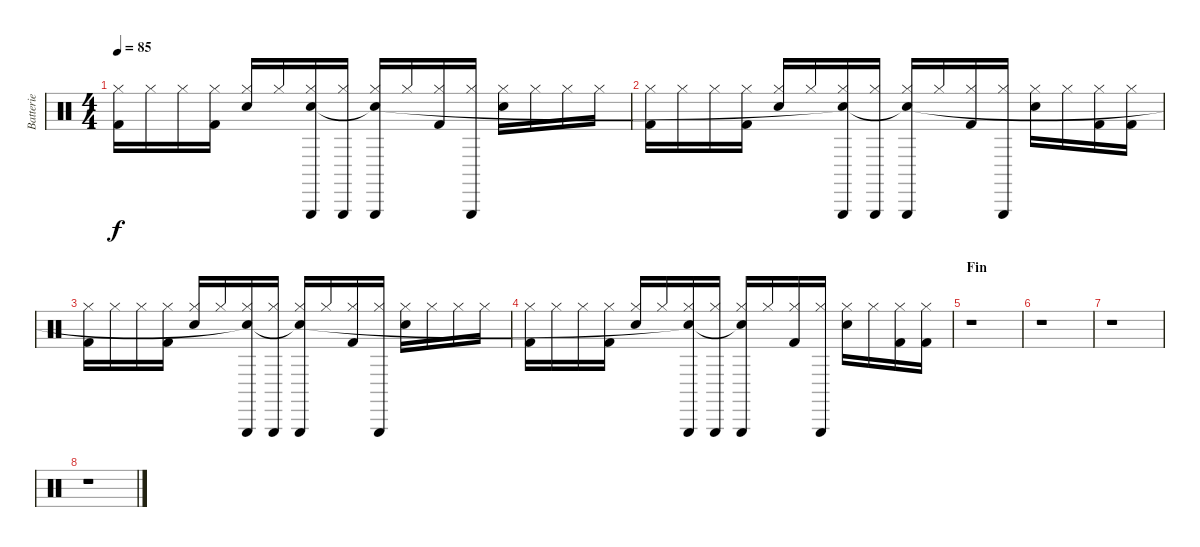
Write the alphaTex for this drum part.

\track ("Batterie" "Batterie") {instrument percussion}
\staff {score}
\articulation defaults
\ts (4 4)
\tempo 85
\clef neutral
\ks c
("Hi-Hat (closed)" "Kick (hit) 2").16{dy f} "Hi-Hat (closed)".16 "Hi-Hat (closed)".16 ("Hi-Hat (closed)" "Kick (hit) 2").16 ("Hi-Hat (closed)" "Hand Clap (hit)").16 "Hi-Hat (closed)".16 ("Hi-Hat (closed)" "Triangle (hit)" "Snare (hit)"{t}).16 ("Hi-Hat (closed)" "Triangle (hit)").16 ("Hi-Hat (closed)" "Triangle (hit)" "Snare (hit)"{t}).16 "Hi-Hat (closed)".16 ("Hi-Hat (closed)" "Kick (hit) 2").16 ("Hi-Hat (closed)" "Triangle (hit)").16 ("Hi-Hat (closed)" "Hand Clap (hit)").16 "Hi-Hat (closed)".16 "Hi-Hat (closed)".16 "Hi-Hat (closed)".16 |
("Hi-Hat (closed)" "Kick (hit) 2").16 "Hi-Hat (closed)".16 "Hi-Hat (closed)".16 ("Hi-Hat (closed)" "Kick (hit) 2").16 ("Hi-Hat (closed)" "Hand Clap (hit)").16 "Hi-Hat (closed)".16 ("Hi-Hat (closed)" "Triangle (hit)" "Snare (hit)"{t}).16 ("Hi-Hat (closed)" "Triangle (hit)").16 ("Hi-Hat (closed)" "Triangle (hit)" "Snare (hit)"{t}).16 "Hi-Hat (closed)".16 ("Hi-Hat (closed)" "Kick (hit) 2").16 ("Hi-Hat (closed)" "Triangle (hit)").16 ("Hi-Hat (closed)" "Hand Clap (hit)").16 "Hi-Hat (closed)".16 ("Hi-Hat (closed)" "Kick (hit) 2").16 ("Hi-Hat (closed)" "Kick (hit) 2").16 |
("Hi-Hat (closed)" "Kick (hit) 2").16 "Hi-Hat (closed)".16 "Hi-Hat (closed)".16 ("Hi-Hat (closed)" "Kick (hit) 2").16 ("Hi-Hat (closed)" "Hand Clap (hit)").16 "Hi-Hat (closed)".16 ("Hi-Hat (closed)" "Triangle (hit)" "Snare (hit)"{t}).16 ("Hi-Hat (closed)" "Triangle (hit)").16 ("Hi-Hat (closed)" "Triangle (hit)" "Snare (hit)"{t}).16 "Hi-Hat (closed)".16 ("Hi-Hat (closed)" "Kick (hit) 2").16 ("Hi-Hat (closed)" "Triangle (hit)").16 ("Hi-Hat (closed)" "Hand Clap (hit)").16 "Hi-Hat (closed)".16 "Hi-Hat (closed)".16 "Hi-Hat (closed)".16 |
("Hi-Hat (closed)" "Kick (hit) 2").16 "Hi-Hat (closed)".16 "Hi-Hat (closed)".16 ("Hi-Hat (closed)" "Kick (hit) 2").16 ("Hi-Hat (closed)" "Hand Clap (hit)").16 "Hi-Hat (closed)".16 ("Hi-Hat (closed)" "Triangle (hit)" "Snare (hit)"{t}).16 ("Hi-Hat (closed)" "Triangle (hit)").16 ("Hi-Hat (closed)" "Triangle (hit)" "Snare (hit)"{t}).16 "Hi-Hat (closed)".16 ("Hi-Hat (closed)" "Kick (hit) 2").16 ("Hi-Hat (closed)" "Triangle (hit)").16 ("Hi-Hat (closed)" "Hand Clap (hit)").16 "Hi-Hat (closed)".16 ("Hi-Hat (closed)" "Kick (hit) 2").16 ("Hi-Hat (closed)" "Kick (hit) 2").16 |
\section ("" "Fin")
r.1 |
r.1 |
r.1 |
r.1
